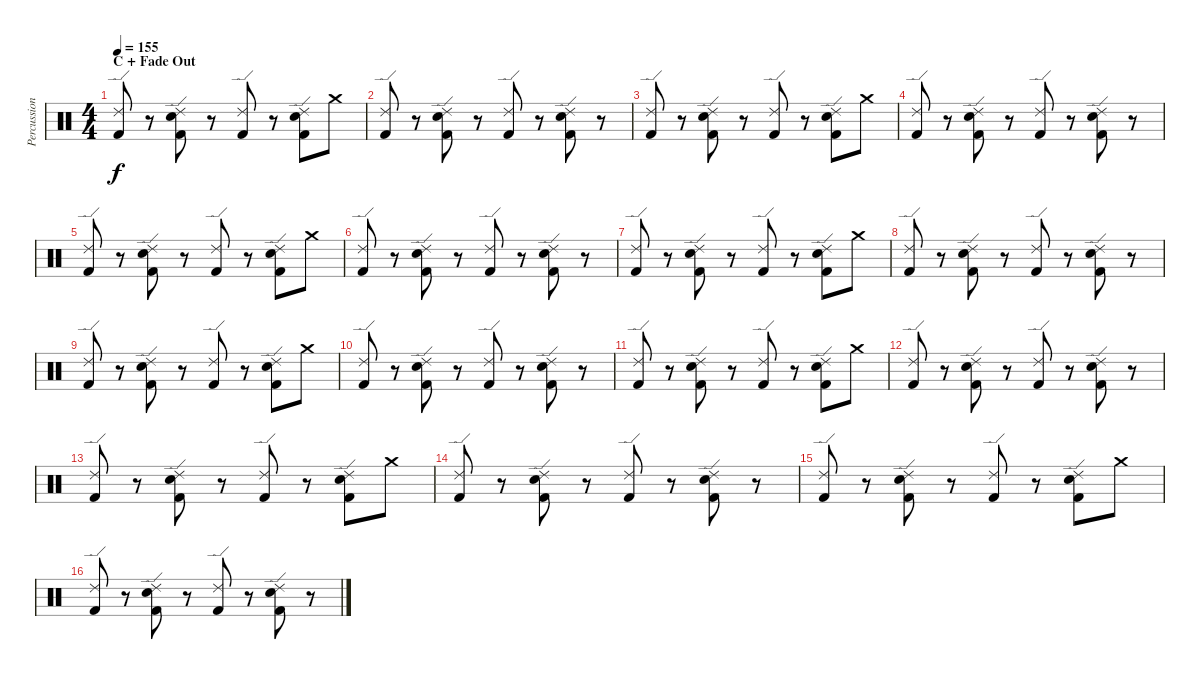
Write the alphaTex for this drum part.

\track ("Percussion" "Percussion") {instrument percussion}
\staff {score}
\articulation defaults
\ts (4 4)
\section ("" "C + Fade Out")
\tempo 155
\clef neutral
\ks c
("Ride (edge) 2" "Kick (hit) 2").8{dy f} r.8 ("Ride (edge) 2" "Snare (hit) 2" "Kick (hit) 2").8 r.8 ("Ride (edge) 2" "Kick (hit) 2").8 r.8 ("Ride (edge) 2" "Snare (hit) 2" "Kick (hit) 2").8 "Crash medium (hit)".8 |
("Ride (edge) 2" "Kick (hit) 2").8 r.8 ("Ride (edge) 2" "Snare (hit) 2" "Kick (hit) 2").8 r.8 ("Ride (edge) 2" "Kick (hit) 2").8 r.8 ("Ride (edge) 2" "Snare (hit) 2" "Kick (hit) 2").8 r.8 |
("Ride (edge) 2" "Kick (hit) 2").8 r.8 ("Ride (edge) 2" "Snare (hit) 2" "Kick (hit) 2").8 r.8 ("Ride (edge) 2" "Kick (hit) 2").8 r.8 ("Ride (edge) 2" "Snare (hit) 2" "Kick (hit) 2").8 "Crash medium (hit)".8 |
("Ride (edge) 2" "Kick (hit) 2").8 r.8 ("Ride (edge) 2" "Snare (hit) 2" "Kick (hit) 2").8 r.8 ("Ride (edge) 2" "Kick (hit) 2").8 r.8 ("Ride (edge) 2" "Snare (hit) 2" "Kick (hit) 2").8 r.8 |
("Ride (edge) 2" "Kick (hit) 2").8 r.8 ("Ride (edge) 2" "Snare (hit) 2" "Kick (hit) 2").8 r.8 ("Ride (edge) 2" "Kick (hit) 2").8 r.8 ("Ride (edge) 2" "Snare (hit) 2" "Kick (hit) 2").8 "Crash medium (hit)".8 |
("Ride (edge) 2" "Kick (hit) 2").8 r.8 ("Ride (edge) 2" "Snare (hit) 2" "Kick (hit) 2").8 r.8 ("Ride (edge) 2" "Kick (hit) 2").8 r.8 ("Ride (edge) 2" "Snare (hit) 2" "Kick (hit) 2").8 r.8 |
("Ride (edge) 2" "Kick (hit) 2").8 r.8 ("Ride (edge) 2" "Snare (hit) 2" "Kick (hit) 2").8 r.8 ("Ride (edge) 2" "Kick (hit) 2").8 r.8 ("Ride (edge) 2" "Snare (hit) 2" "Kick (hit) 2").8 "Crash medium (hit)".8 |
("Ride (edge) 2" "Kick (hit) 2").8 r.8 ("Ride (edge) 2" "Snare (hit) 2" "Kick (hit) 2").8 r.8 ("Ride (edge) 2" "Kick (hit) 2").8 r.8 ("Ride (edge) 2" "Snare (hit) 2" "Kick (hit) 2").8 r.8 |
("Ride (edge) 2" "Kick (hit) 2").8 r.8 ("Ride (edge) 2" "Snare (hit) 2" "Kick (hit) 2").8 r.8 ("Ride (edge) 2" "Kick (hit) 2").8 r.8 ("Ride (edge) 2" "Snare (hit) 2" "Kick (hit) 2").8 "Crash medium (hit)".8 |
("Ride (edge) 2" "Kick (hit) 2").8 r.8 ("Ride (edge) 2" "Snare (hit) 2" "Kick (hit) 2").8 r.8 ("Ride (edge) 2" "Kick (hit) 2").8 r.8 ("Ride (edge) 2" "Snare (hit) 2" "Kick (hit) 2").8 r.8 |
("Ride (edge) 2" "Kick (hit) 2").8 r.8 ("Ride (edge) 2" "Snare (hit) 2" "Kick (hit) 2").8 r.8 ("Ride (edge) 2" "Kick (hit) 2").8 r.8 ("Ride (edge) 2" "Snare (hit) 2" "Kick (hit) 2").8 "Crash medium (hit)".8 |
("Ride (edge) 2" "Kick (hit) 2").8 r.8 ("Ride (edge) 2" "Snare (hit) 2" "Kick (hit) 2").8 r.8 ("Ride (edge) 2" "Kick (hit) 2").8 r.8 ("Ride (edge) 2" "Snare (hit) 2" "Kick (hit) 2").8 r.8 |
("Ride (edge) 2" "Kick (hit) 2").8 r.8 ("Ride (edge) 2" "Snare (hit) 2" "Kick (hit) 2").8 r.8 ("Ride (edge) 2" "Kick (hit) 2").8 r.8 ("Ride (edge) 2" "Snare (hit) 2" "Kick (hit) 2").8 "Crash medium (hit)".8 |
("Ride (edge) 2" "Kick (hit) 2").8 r.8 ("Ride (edge) 2" "Snare (hit) 2" "Kick (hit) 2").8 r.8 ("Ride (edge) 2" "Kick (hit) 2").8 r.8 ("Ride (edge) 2" "Snare (hit) 2" "Kick (hit) 2").8 r.8 |
("Ride (edge) 2" "Kick (hit) 2").8 r.8 ("Ride (edge) 2" "Snare (hit) 2" "Kick (hit) 2").8 r.8 ("Ride (edge) 2" "Kick (hit) 2").8 r.8 ("Ride (edge) 2" "Snare (hit) 2" "Kick (hit) 2").8 "Crash medium (hit)".8 |
("Ride (edge) 2" "Kick (hit) 2").8 r.8 ("Ride (edge) 2" "Snare (hit) 2" "Kick (hit) 2").8 r.8 ("Ride (edge) 2" "Kick (hit) 2").8 r.8 ("Ride (edge) 2" "Snare (hit) 2" "Kick (hit) 2").8 r.8
